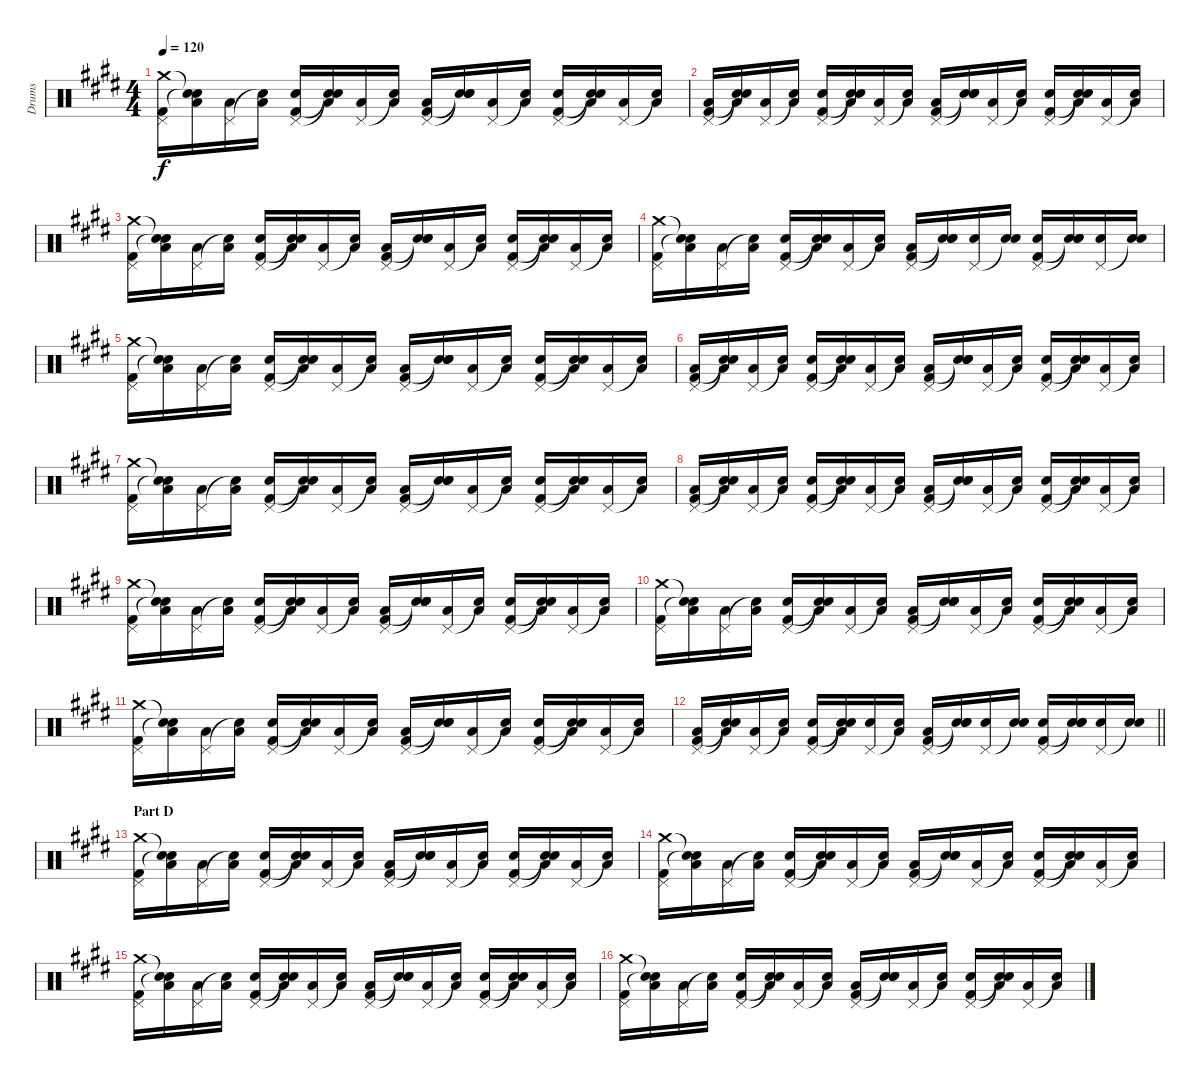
\track ("Drums" "Drums") {instrument percussion}
\staff {score}
\articulation defaults
\ts (4 4)
\tempo 120
\clef neutral
\ks e
("Crash medium (hit)" "Pedal Hi-Hat (hit)" "Kick (hit) 2").16{dy f} ("Snare (hit)"{t} "Low Floor Tom (hit)" "Snare (hit)"{t}).16 ("Pedal Hi-Hat (hit)" "Low Floor Tom (hit)").16 ("Snare (hit)"{t} "Low Floor Tom (hit)").16 ("Pedal Hi-Hat (hit)" "Electric Snare (hit)" "Kick (hit) 2").16 ("Snare (hit)"{t} "Low Floor Tom (hit)" "Snare (hit)"{t}).16 ("Pedal Hi-Hat (hit)" "Low Floor Tom (hit)").16 ("Snare (hit)"{t} "Low Floor Tom (hit)").16 ("Pedal Hi-Hat (hit)" "Low Floor Tom (hit)" "Kick (hit) 2").16 ("Snare (hit)"{t} "Electric Snare (hit)" "Snare (hit)"{t}).16 ("Pedal Hi-Hat (hit)" "Low Floor Tom (hit)").16 ("Snare (hit)"{t} "Low Floor Tom (hit)").16 ("Pedal Hi-Hat (hit)" "Electric Snare (hit)" "Kick (hit) 2").16 ("Snare (hit)"{t} "Low Floor Tom (hit)" "Snare (hit)"{t}).16 ("Pedal Hi-Hat (hit)" "Low Floor Tom (hit)").16 ("Snare (hit)"{t} "Low Floor Tom (hit)").16 |
("Pedal Hi-Hat (hit)" "Low Floor Tom (hit)" "Kick (hit) 2").16 ("Snare (hit)"{t} "Low Floor Tom (hit)" "Snare (hit)"{t}).16 ("Pedal Hi-Hat (hit)" "Low Floor Tom (hit)").16 ("Snare (hit)"{t} "Low Floor Tom (hit)").16 ("Pedal Hi-Hat (hit)" "Electric Snare (hit)" "Kick (hit) 2").16 ("Snare (hit)"{t} "Low Floor Tom (hit)" "Snare (hit)"{t}).16 ("Pedal Hi-Hat (hit)" "Low Floor Tom (hit)").16 ("Snare (hit)"{t} "Low Floor Tom (hit)").16 ("Pedal Hi-Hat (hit)" "Low Floor Tom (hit)" "Kick (hit) 2").16 ("Snare (hit)"{t} "Electric Snare (hit)" "Snare (hit)"{t}).16 ("Pedal Hi-Hat (hit)" "Low Floor Tom (hit)").16 ("Snare (hit)"{t} "Low Floor Tom (hit)").16 ("Pedal Hi-Hat (hit)" "Electric Snare (hit)" "Kick (hit) 2").16 ("Snare (hit)"{t} "Low Floor Tom (hit)" "Snare (hit)"{t}).16 ("Pedal Hi-Hat (hit)" "Low Floor Tom (hit)").16 ("Snare (hit)"{t} "Low Floor Tom (hit)").16 |
("Crash medium (hit)" "Pedal Hi-Hat (hit)" "Kick (hit) 2").16 ("Snare (hit)"{t} "Low Floor Tom (hit)" "Snare (hit)"{t}).16 ("Pedal Hi-Hat (hit)" "Low Floor Tom (hit)").16 ("Snare (hit)"{t} "Low Floor Tom (hit)").16 ("Pedal Hi-Hat (hit)" "Electric Snare (hit)" "Kick (hit) 2").16 ("Snare (hit)"{t} "Low Floor Tom (hit)" "Snare (hit)"{t}).16 ("Pedal Hi-Hat (hit)" "Low Floor Tom (hit)").16 ("Snare (hit)"{t} "Low Floor Tom (hit)").16 ("Pedal Hi-Hat (hit)" "Low Floor Tom (hit)" "Kick (hit) 2").16 ("Snare (hit)"{t} "Electric Snare (hit)" "Snare (hit)"{t}).16 ("Pedal Hi-Hat (hit)" "Low Floor Tom (hit)").16 ("Snare (hit)"{t} "Low Floor Tom (hit)").16 ("Pedal Hi-Hat (hit)" "Electric Snare (hit)" "Kick (hit) 2").16 ("Snare (hit)"{t} "Low Floor Tom (hit)" "Snare (hit)"{t}).16 ("Pedal Hi-Hat (hit)" "Low Floor Tom (hit)").16 ("Snare (hit)"{t} "Low Floor Tom (hit)").16 |
("Crash medium (hit)" "Pedal Hi-Hat (hit)" "Kick (hit) 2").16 ("Snare (hit)"{t} "Low Floor Tom (hit)" "Snare (hit)"{t}).16 ("Pedal Hi-Hat (hit)" "Low Floor Tom (hit)").16 ("Snare (hit)"{t} "Low Floor Tom (hit)").16 ("Pedal Hi-Hat (hit)" "Electric Snare (hit)" "Kick (hit) 2").16 ("Snare (hit)"{t} "Low Floor Tom (hit)" "Snare (hit)"{t}).16 ("Pedal Hi-Hat (hit)" "Low Floor Tom (hit)").16 ("Snare (hit)"{t} "Low Floor Tom (hit)").16 ("Pedal Hi-Hat (hit)" "Low Floor Tom (hit)" "Kick (hit) 2").16 ("Snare (hit)"{t} "Electric Snare (hit)" "Snare (hit)"{t}).16 ("Pedal Hi-Hat (hit)" "Electric Snare (hit)").16 ("Snare (hit)"{t} "Electric Snare (hit)").16 ("Pedal Hi-Hat (hit)" "Electric Snare (hit)" "Kick (hit) 2").16 ("Snare (hit)"{t} "Electric Snare (hit)" "Snare (hit)"{t}).16 ("Pedal Hi-Hat (hit)" "Electric Snare (hit)").16 ("Snare (hit)"{t} "Electric Snare (hit)").16 |
("Crash medium (hit)" "Pedal Hi-Hat (hit)" "Kick (hit) 2").16 ("Snare (hit)"{t} "Low Floor Tom (hit)" "Snare (hit)"{t}).16 ("Pedal Hi-Hat (hit)" "Low Floor Tom (hit)").16 ("Snare (hit)"{t} "Low Floor Tom (hit)").16 ("Pedal Hi-Hat (hit)" "Electric Snare (hit)" "Kick (hit) 2").16 ("Snare (hit)"{t} "Low Floor Tom (hit)" "Snare (hit)"{t}).16 ("Pedal Hi-Hat (hit)" "Low Floor Tom (hit)").16 ("Snare (hit)"{t} "Low Floor Tom (hit)").16 ("Pedal Hi-Hat (hit)" "Low Floor Tom (hit)" "Kick (hit) 2").16 ("Snare (hit)"{t} "Electric Snare (hit)" "Snare (hit)"{t}).16 ("Pedal Hi-Hat (hit)" "Low Floor Tom (hit)").16 ("Snare (hit)"{t} "Low Floor Tom (hit)").16 ("Pedal Hi-Hat (hit)" "Electric Snare (hit)" "Kick (hit) 2").16 ("Snare (hit)"{t} "Low Floor Tom (hit)" "Snare (hit)"{t}).16 ("Pedal Hi-Hat (hit)" "Low Floor Tom (hit)").16 ("Snare (hit)"{t} "Low Floor Tom (hit)").16 |
("Pedal Hi-Hat (hit)" "Low Floor Tom (hit)" "Kick (hit) 2").16 ("Snare (hit)"{t} "Low Floor Tom (hit)" "Snare (hit)"{t}).16 ("Pedal Hi-Hat (hit)" "Low Floor Tom (hit)").16 ("Snare (hit)"{t} "Low Floor Tom (hit)").16 ("Pedal Hi-Hat (hit)" "Electric Snare (hit)" "Kick (hit) 2").16 ("Snare (hit)"{t} "Low Floor Tom (hit)" "Snare (hit)"{t}).16 ("Pedal Hi-Hat (hit)" "Low Floor Tom (hit)").16 ("Snare (hit)"{t} "Low Floor Tom (hit)").16 ("Pedal Hi-Hat (hit)" "Low Floor Tom (hit)" "Kick (hit) 2").16 ("Snare (hit)"{t} "Electric Snare (hit)" "Snare (hit)"{t}).16 ("Pedal Hi-Hat (hit)" "Low Floor Tom (hit)").16 ("Snare (hit)"{t} "Low Floor Tom (hit)").16 ("Pedal Hi-Hat (hit)" "Electric Snare (hit)" "Kick (hit) 2").16 ("Snare (hit)"{t} "Low Floor Tom (hit)" "Snare (hit)"{t}).16 ("Pedal Hi-Hat (hit)" "Low Floor Tom (hit)").16 ("Snare (hit)"{t} "Low Floor Tom (hit)").16 |
("Crash medium (hit)" "Pedal Hi-Hat (hit)" "Kick (hit) 2").16 ("Snare (hit)"{t} "Low Floor Tom (hit)" "Snare (hit)"{t}).16 ("Pedal Hi-Hat (hit)" "Low Floor Tom (hit)").16 ("Snare (hit)"{t} "Low Floor Tom (hit)").16 ("Pedal Hi-Hat (hit)" "Electric Snare (hit)" "Kick (hit) 2").16 ("Snare (hit)"{t} "Low Floor Tom (hit)" "Snare (hit)"{t}).16 ("Pedal Hi-Hat (hit)" "Low Floor Tom (hit)").16 ("Snare (hit)"{t} "Low Floor Tom (hit)").16 ("Pedal Hi-Hat (hit)" "Low Floor Tom (hit)" "Kick (hit) 2").16 ("Snare (hit)"{t} "Electric Snare (hit)" "Snare (hit)"{t}).16 ("Pedal Hi-Hat (hit)" "Low Floor Tom (hit)").16 ("Snare (hit)"{t} "Low Floor Tom (hit)").16 ("Pedal Hi-Hat (hit)" "Electric Snare (hit)" "Kick (hit) 2").16 ("Snare (hit)"{t} "Low Floor Tom (hit)" "Snare (hit)"{t}).16 ("Pedal Hi-Hat (hit)" "Low Floor Tom (hit)").16 ("Snare (hit)"{t} "Low Floor Tom (hit)").16 |
("Pedal Hi-Hat (hit)" "Low Floor Tom (hit)" "Kick (hit) 2").16 ("Snare (hit)"{t} "Low Floor Tom (hit)" "Snare (hit)"{t}).16 ("Pedal Hi-Hat (hit)" "Low Floor Tom (hit)").16 ("Snare (hit)"{t} "Low Floor Tom (hit)").16 ("Pedal Hi-Hat (hit)" "Electric Snare (hit)" "Kick (hit) 2").16 ("Snare (hit)"{t} "Low Floor Tom (hit)" "Snare (hit)"{t}).16 ("Pedal Hi-Hat (hit)" "Low Floor Tom (hit)").16 ("Snare (hit)"{t} "Low Floor Tom (hit)").16 ("Pedal Hi-Hat (hit)" "Low Floor Tom (hit)" "Kick (hit) 2").16 ("Snare (hit)"{t} "Electric Snare (hit)" "Snare (hit)"{t}).16 ("Pedal Hi-Hat (hit)" "Low Floor Tom (hit)").16 ("Snare (hit)"{t} "Low Floor Tom (hit)").16 ("Pedal Hi-Hat (hit)" "Electric Snare (hit)" "Kick (hit) 2").16 ("Snare (hit)"{t} "Low Floor Tom (hit)" "Snare (hit)"{t}).16 ("Pedal Hi-Hat (hit)" "Low Floor Tom (hit)").16 ("Snare (hit)"{t} "Low Floor Tom (hit)").16 |
("Crash medium (hit)" "Pedal Hi-Hat (hit)" "Kick (hit) 2").16 ("Snare (hit)"{t} "Low Floor Tom (hit)" "Snare (hit)"{t}).16 ("Pedal Hi-Hat (hit)" "Low Floor Tom (hit)").16 ("Snare (hit)"{t} "Low Floor Tom (hit)").16 ("Pedal Hi-Hat (hit)" "Electric Snare (hit)" "Kick (hit) 2").16 ("Snare (hit)"{t} "Low Floor Tom (hit)" "Snare (hit)"{t}).16 ("Pedal Hi-Hat (hit)" "Low Floor Tom (hit)").16 ("Snare (hit)"{t} "Low Floor Tom (hit)").16 ("Pedal Hi-Hat (hit)" "Low Floor Tom (hit)" "Kick (hit) 2").16 ("Snare (hit)"{t} "Electric Snare (hit)" "Snare (hit)"{t}).16 ("Pedal Hi-Hat (hit)" "Low Floor Tom (hit)").16 ("Snare (hit)"{t} "Low Floor Tom (hit)").16 ("Pedal Hi-Hat (hit)" "Electric Snare (hit)" "Kick (hit) 2").16 ("Snare (hit)"{t} "Low Floor Tom (hit)" "Snare (hit)"{t}).16 ("Pedal Hi-Hat (hit)" "Low Floor Tom (hit)").16 ("Snare (hit)"{t} "Low Floor Tom (hit)").16 |
("Crash medium (hit)" "Pedal Hi-Hat (hit)" "Kick (hit) 2").16 ("Snare (hit)"{t} "Low Floor Tom (hit)" "Snare (hit)"{t}).16 ("Pedal Hi-Hat (hit)" "Low Floor Tom (hit)").16 ("Snare (hit)"{t} "Low Floor Tom (hit)").16 ("Pedal Hi-Hat (hit)" "Electric Snare (hit)" "Kick (hit) 2").16 ("Snare (hit)"{t} "Low Floor Tom (hit)" "Snare (hit)"{t}).16 ("Pedal Hi-Hat (hit)" "Low Floor Tom (hit)").16 ("Snare (hit)"{t} "Low Floor Tom (hit)").16 ("Pedal Hi-Hat (hit)" "Low Floor Tom (hit)" "Kick (hit) 2").16 ("Snare (hit)"{t} "Electric Snare (hit)" "Snare (hit)"{t}).16 ("Pedal Hi-Hat (hit)" "Low Floor Tom (hit)").16 ("Snare (hit)"{t} "Low Floor Tom (hit)").16 ("Pedal Hi-Hat (hit)" "Electric Snare (hit)" "Kick (hit) 2").16 ("Snare (hit)"{t} "Low Floor Tom (hit)" "Snare (hit)"{t}).16 ("Pedal Hi-Hat (hit)" "Low Floor Tom (hit)").16 ("Snare (hit)"{t} "Low Floor Tom (hit)").16 |
("Crash medium (hit)" "Pedal Hi-Hat (hit)" "Kick (hit) 2").16 ("Snare (hit)"{t} "Low Floor Tom (hit)" "Snare (hit)"{t}).16 ("Pedal Hi-Hat (hit)" "Low Floor Tom (hit)").16 ("Snare (hit)"{t} "Low Floor Tom (hit)").16 ("Pedal Hi-Hat (hit)" "Electric Snare (hit)" "Kick (hit) 2").16 ("Snare (hit)"{t} "Low Floor Tom (hit)" "Snare (hit)"{t}).16 ("Pedal Hi-Hat (hit)" "Low Floor Tom (hit)").16 ("Snare (hit)"{t} "Low Floor Tom (hit)").16 ("Pedal Hi-Hat (hit)" "Low Floor Tom (hit)" "Kick (hit) 2").16 ("Snare (hit)"{t} "Electric Snare (hit)" "Snare (hit)"{t}).16 ("Pedal Hi-Hat (hit)" "Low Floor Tom (hit)").16 ("Snare (hit)"{t} "Low Floor Tom (hit)").16 ("Pedal Hi-Hat (hit)" "Electric Snare (hit)" "Kick (hit) 2").16 ("Snare (hit)"{t} "Low Floor Tom (hit)" "Snare (hit)"{t}).16 ("Pedal Hi-Hat (hit)" "Low Floor Tom (hit)").16 ("Snare (hit)"{t} "Low Floor Tom (hit)").16 |
\barLineRight lightlight
("Pedal Hi-Hat (hit)" "Low Floor Tom (hit)" "Kick (hit) 2").16 ("Snare (hit)"{t} "Low Floor Tom (hit)" "Snare (hit)"{t}).16 ("Pedal Hi-Hat (hit)" "Low Floor Tom (hit)").16 ("Snare (hit)"{t} "Low Floor Tom (hit)").16 ("Pedal Hi-Hat (hit)" "Electric Snare (hit)" "Kick (hit) 2").16 ("Snare (hit)"{t} "Low Floor Tom (hit)" "Snare (hit)"{t}).16 ("Pedal Hi-Hat (hit)" "Electric Snare (hit)").16 ("Snare (hit)"{t} "Low Floor Tom (hit)").16 ("Pedal Hi-Hat (hit)" "Low Floor Tom (hit)" "Kick (hit) 2").16 ("Snare (hit)"{t} "Electric Snare (hit)" "Snare (hit)"{t}).16 ("Pedal Hi-Hat (hit)" "Electric Snare (hit)").16 ("Snare (hit)"{t} "Electric Snare (hit)").16 ("Pedal Hi-Hat (hit)" "Electric Snare (hit)" "Kick (hit) 2").16 ("Snare (hit)"{t} "Electric Snare (hit)" "Snare (hit)"{t}).16 ("Pedal Hi-Hat (hit)" "Electric Snare (hit)").16 ("Snare (hit)"{t} "Electric Snare (hit)").16 |
\section ("" "Part D")
("Crash medium (hit)" "Pedal Hi-Hat (hit)" "Kick (hit) 2").16 ("Snare (hit)"{t} "Low Floor Tom (hit)" "Snare (hit)"{t}).16 ("Pedal Hi-Hat (hit)" "Low Floor Tom (hit)").16 ("Snare (hit)"{t} "Low Floor Tom (hit)").16 ("Pedal Hi-Hat (hit)" "Electric Snare (hit)" "Kick (hit) 2").16 ("Snare (hit)"{t} "Low Floor Tom (hit)" "Snare (hit)"{t}).16 ("Pedal Hi-Hat (hit)" "Low Floor Tom (hit)").16 ("Snare (hit)"{t} "Low Floor Tom (hit)").16 ("Pedal Hi-Hat (hit)" "Low Floor Tom (hit)" "Kick (hit) 2").16 ("Snare (hit)"{t} "Electric Snare (hit)" "Snare (hit)"{t}).16 ("Pedal Hi-Hat (hit)" "Low Floor Tom (hit)").16 ("Snare (hit)"{t} "Low Floor Tom (hit)").16 ("Pedal Hi-Hat (hit)" "Electric Snare (hit)" "Kick (hit) 2").16 ("Snare (hit)"{t} "Low Floor Tom (hit)" "Snare (hit)"{t}).16 ("Pedal Hi-Hat (hit)" "Low Floor Tom (hit)").16 ("Snare (hit)"{t} "Low Floor Tom (hit)").16 |
("Crash medium (hit)" "Pedal Hi-Hat (hit)" "Kick (hit) 2").16 ("Snare (hit)"{t} "Low Floor Tom (hit)" "Snare (hit)"{t}).16 ("Pedal Hi-Hat (hit)" "Low Floor Tom (hit)").16 ("Snare (hit)"{t} "Low Floor Tom (hit)").16 ("Pedal Hi-Hat (hit)" "Electric Snare (hit)" "Kick (hit) 2").16 ("Snare (hit)"{t} "Low Floor Tom (hit)" "Snare (hit)"{t}).16 ("Pedal Hi-Hat (hit)" "Low Floor Tom (hit)").16 ("Snare (hit)"{t} "Low Floor Tom (hit)").16 ("Pedal Hi-Hat (hit)" "Low Floor Tom (hit)" "Kick (hit) 2").16 ("Snare (hit)"{t} "Electric Snare (hit)" "Snare (hit)"{t}).16 ("Pedal Hi-Hat (hit)" "Low Floor Tom (hit)").16 ("Snare (hit)"{t} "Low Floor Tom (hit)").16 ("Pedal Hi-Hat (hit)" "Electric Snare (hit)" "Kick (hit) 2").16 ("Snare (hit)"{t} "Low Floor Tom (hit)" "Snare (hit)"{t}).16 ("Pedal Hi-Hat (hit)" "Low Floor Tom (hit)").16 ("Snare (hit)"{t} "Low Floor Tom (hit)").16 |
("Crash medium (hit)" "Pedal Hi-Hat (hit)" "Kick (hit) 2").16 ("Snare (hit)"{t} "Low Floor Tom (hit)" "Snare (hit)"{t}).16 ("Pedal Hi-Hat (hit)" "Low Floor Tom (hit)").16 ("Snare (hit)"{t} "Low Floor Tom (hit)").16 ("Pedal Hi-Hat (hit)" "Electric Snare (hit)" "Kick (hit) 2").16 ("Snare (hit)"{t} "Low Floor Tom (hit)" "Snare (hit)"{t}).16 ("Pedal Hi-Hat (hit)" "Low Floor Tom (hit)").16 ("Snare (hit)"{t} "Low Floor Tom (hit)").16 ("Pedal Hi-Hat (hit)" "Low Floor Tom (hit)" "Kick (hit) 2").16 ("Snare (hit)"{t} "Electric Snare (hit)" "Snare (hit)"{t}).16 ("Pedal Hi-Hat (hit)" "Low Floor Tom (hit)").16 ("Snare (hit)"{t} "Low Floor Tom (hit)").16 ("Pedal Hi-Hat (hit)" "Electric Snare (hit)" "Kick (hit) 2").16 ("Snare (hit)"{t} "Low Floor Tom (hit)" "Snare (hit)"{t}).16 ("Pedal Hi-Hat (hit)" "Low Floor Tom (hit)").16 ("Snare (hit)"{t} "Low Floor Tom (hit)").16 |
("Crash medium (hit)" "Pedal Hi-Hat (hit)" "Kick (hit) 2").16 ("Snare (hit)"{t} "Low Floor Tom (hit)" "Snare (hit)"{t}).16 ("Pedal Hi-Hat (hit)" "Low Floor Tom (hit)").16 ("Snare (hit)"{t} "Low Floor Tom (hit)").16 ("Pedal Hi-Hat (hit)" "Electric Snare (hit)" "Kick (hit) 2").16 ("Snare (hit)"{t} "Low Floor Tom (hit)" "Snare (hit)"{t}).16 ("Pedal Hi-Hat (hit)" "Low Floor Tom (hit)").16 ("Snare (hit)"{t} "Low Floor Tom (hit)").16 ("Pedal Hi-Hat (hit)" "Low Floor Tom (hit)" "Kick (hit) 2").16 ("Snare (hit)"{t} "Electric Snare (hit)" "Snare (hit)"{t}).16 ("Pedal Hi-Hat (hit)" "Low Floor Tom (hit)").16 ("Snare (hit)"{t} "Low Floor Tom (hit)").16 ("Pedal Hi-Hat (hit)" "Electric Snare (hit)" "Kick (hit) 2").16 ("Snare (hit)"{t} "Low Floor Tom (hit)" "Snare (hit)"{t}).16 ("Pedal Hi-Hat (hit)" "Low Floor Tom (hit)").16 ("Snare (hit)"{t} "Low Floor Tom (hit)").16
